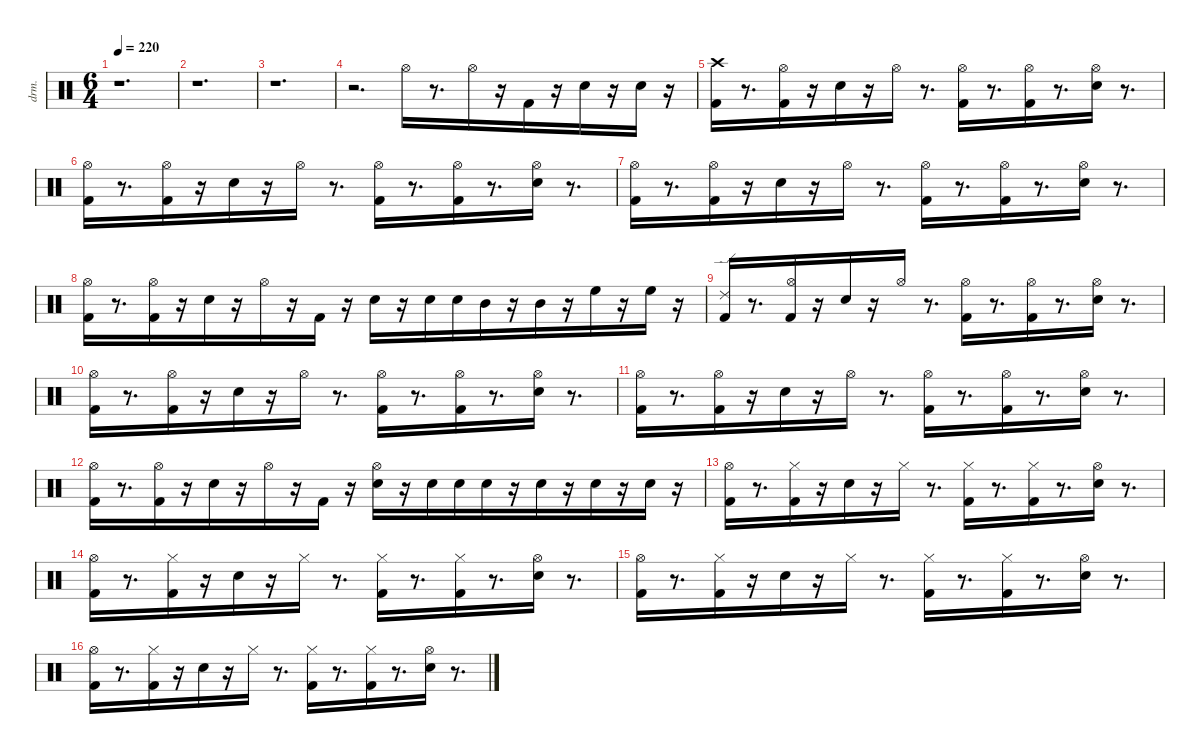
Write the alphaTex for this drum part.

\defaultSystemsLayout 4
\hideDynamics
\bracketExtendMode nobrackets
\otherSystemsTrackNameOrientation horizontal
\track ("EZdrummer 3" "drm.") {instrument percussion}
\staff {score}
\articulation defaults
\ts (6 4)
\beaming (8 6 6)
\tempo 220
\clef neutral
\ks c
r.1{d dy fff beam Down} |
r.1{d beam Down} |
r.1{d beam Down} |
r.2{d beam Down} "Hi-Hat (open)"{acc #}.16{beam Down} r.8{d beam Down} "Hi-Hat (open)"{acc #}.16{dy f beam Down} r.16{beam Down} "Kick (hit) 2".16{dy mf beam Up} r.16{beam Up} "Snare (hit) 2".16{beam Down} r.16{beam Down} "Snare (hit) 2".16{dy p beam Down} r.16{beam Down} |
("Kick (hit) 2" "Crash high (hit)"{acc #}).16{dy fff beam Down} r.8{d beam Down} ("Kick (hit) 2" "Hi-Hat (open)"{acc #}).16{dy f beam Down} r.16{beam Down} "Snare (hit) 2".16{dy ff beam Down} r.16{beam Down} "Hi-Hat (open)"{acc #}.16{dy mf beam Down} r.8{d beam Down} ("Kick (hit) 2" "Hi-Hat (open)"{acc #}).16{dy ff beam Down} r.8{d beam Down} ("Kick (hit) 2" "Hi-Hat (open)"{acc #}).16{dy f beam Down} r.8{d beam Down} ("Snare (hit) 2" "Hi-Hat (open)"{acc #}).16{dy ff beam Down} r.8{d beam Down} |
("Kick (hit) 2" "Hi-Hat (open)"{acc #}).16{dy fff beam Down} r.8{d beam Down} ("Kick (hit) 2" "Hi-Hat (open)"{acc #}).16{dy f beam Down} r.16{beam Down} "Snare (hit) 2".16{dy ff beam Down} r.16{beam Down} "Hi-Hat (open)"{acc #}.16{dy mf beam Down} r.8{d beam Down} ("Kick (hit) 2" "Hi-Hat (open)"{acc #}).16{dy ff beam Down} r.8{d beam Down} ("Kick (hit) 2" "Hi-Hat (open)"{acc #}).16{dy f beam Down} r.8{d beam Down} ("Snare (hit) 2" "Hi-Hat (open)"{acc #}).16{dy ff beam Down} r.8{d beam Down} |
("Kick (hit) 2" "Hi-Hat (open)"{acc #}).16{dy fff beam Down} r.8{d beam Down} ("Kick (hit) 2" "Hi-Hat (open)"{acc #}).16{dy f beam Down} r.16{beam Down} "Snare (hit) 2".16{dy ff beam Down} r.16{beam Down} "Hi-Hat (open)"{acc #}.16{dy mf beam Down} r.8{d beam Down} ("Kick (hit) 2" "Hi-Hat (open)"{acc #}).16{dy ff beam Down} r.8{d beam Down} ("Kick (hit) 2" "Hi-Hat (open)"{acc #}).16{dy f beam Down} r.8{d beam Down} ("Snare (hit) 2" "Hi-Hat (open)"{acc #}).16{dy ff beam Down} r.8{d beam Down} |
("Kick (hit) 2" "Hi-Hat (open)"{acc #}).16{dy fff beam Down} r.8{d beam Down} ("Kick (hit) 2" "Hi-Hat (open)"{acc #}).16{dy f beam Down} r.16{beam Down} "Snare (hit) 2".16{dy ff beam Down} r.16{beam Down} "Hi-Hat (open)"{acc #}.16{dy f beam Down} r.16{beam Down} "Kick (hit) 2".16{dy ff beam Up} r.16{beam Up} "Snare (hit) 2".16{beam Down} r.16{beam Down} "Snare (hit) 2".16{dy f beam Down} "Snare (hit) 2".16{dy p beam Down} "Mid Tom (hit)".16{dy ff beam Down} r.16{beam Down} "Mid Tom (hit)".16{dy mf beam Down} r.16{beam Down} "High Floor Tom (hit)".16{dy ff beam Down} r.16{beam Down} "High Floor Tom (hit)".16{dy f beam Down} r.16{beam Down} |
("Kick (hit) 2" "Ride (edge) 2").16{dy fff beam Up} r.8{d beam Up} ("Kick (hit) 2" "Hi-Hat (open)"{acc #}).16{dy f beam Down} r.16{beam Down} "Snare (hit) 2".16{dy ff beam Down} r.16{beam Down} "Hi-Hat (open)"{acc #}.16{dy mf beam Down} r.8{d beam Down} ("Kick (hit) 2" "Hi-Hat (open)"{acc #}).16{dy ff beam Down} r.8{d beam Down} ("Kick (hit) 2" "Hi-Hat (open)"{acc #}).16{dy f beam Down} r.8{d beam Down} ("Snare (hit) 2" "Hi-Hat (open)"{acc #}).16{dy ff beam Down} r.8{d beam Down} |
("Kick (hit) 2" "Hi-Hat (open)"{acc #}).16{dy fff beam Down} r.8{d beam Down} ("Kick (hit) 2" "Hi-Hat (open)"{acc #}).16{dy f beam Down} r.16{beam Down} "Snare (hit) 2".16{dy ff beam Down} r.16{beam Down} "Hi-Hat (open)"{acc #}.16{dy mf beam Down} r.8{d beam Down} ("Kick (hit) 2" "Hi-Hat (open)"{acc #}).16{dy ff beam Down} r.8{d beam Down} ("Kick (hit) 2" "Hi-Hat (open)"{acc #}).16{dy f beam Down} r.8{d beam Down} ("Snare (hit) 2" "Hi-Hat (open)"{acc #}).16{dy ff beam Down} r.8{d beam Down} |
("Kick (hit) 2" "Hi-Hat (open)"{acc #}).16{dy fff beam Down} r.8{d beam Down} ("Kick (hit) 2" "Hi-Hat (open)"{acc #}).16{dy f beam Down} r.16{beam Down} "Snare (hit) 2".16{dy ff beam Down} r.16{beam Down} "Hi-Hat (open)"{acc #}.16{dy f beam Down} r.8{d beam Down} ("Kick (hit) 2" "Hi-Hat (open)"{acc #}).16{dy ff beam Down} r.8{d beam Down} ("Kick (hit) 2" "Hi-Hat (open)"{acc #}).16{dy f beam Down} r.8{d beam Down} ("Snare (hit) 2" "Hi-Hat (open)"{acc #}).16{dy ff beam Down} r.8{d beam Down} |
("Kick (hit) 2" "Hi-Hat (open)"{acc #}).16{dy fff beam Down} r.8{d beam Down} ("Kick (hit) 2" "Hi-Hat (open)"{acc #}).16{dy f beam Down} r.16{beam Down} "Snare (hit) 2".16{dy ff beam Down} r.16{beam Down} "Hi-Hat (open)"{acc #}.16{dy f beam Down} r.16{beam Down} "Kick (hit) 2".16{dy ff beam Up} r.16{beam Up} ("Snare (hit) 2" "Hi-Hat (open)"{acc #}).16{beam Down} r.16{beam Down} "Snare (hit) 2".16{dy p beam Down} "Snare (hit) 2".16{dy pp beam Down} "Snare (hit) 2".16{dy mf beam Down} r.16{beam Down} "Snare (hit) 2".16{dy mp beam Down} r.16{beam Down} "Snare (hit) 2".16{dy mf beam Down} r.16{beam Down} "Snare (hit) 2".16{dy mp beam Down} r.16{beam Down} |
("Kick (hit) 2" "Hi-Hat (open)"{acc #}).16{dy fff beam Down} r.8{d beam Down} ("Kick (hit) 2" "Hi-Hat (closed)"{acc #}).16{dy f beam Down} r.16{beam Down} "Snare (hit) 2".16{dy ff beam Down} r.16{beam Down} "Hi-Hat (closed)"{acc #}.16{beam Down} r.8{d beam Down} ("Kick (hit) 2" "Hi-Hat (closed)"{acc #}).16{beam Down} r.8{d beam Down} ("Kick (hit) 2" "Hi-Hat (closed)"{acc #}).16{dy f beam Down} r.8{d beam Down} ("Snare (hit) 2" "Hi-Hat (open)"{acc #}).16{dy ff beam Down} r.8{d beam Down} |
("Kick (hit) 2" "Hi-Hat (open)"{acc #}).16{dy fff beam Down} r.8{d beam Down} ("Kick (hit) 2" "Hi-Hat (closed)"{acc #}).16{dy f beam Down} r.16{beam Down} "Snare (hit) 2".16{dy ff beam Down} r.16{beam Down} "Hi-Hat (closed)"{acc #}.16{beam Down} r.8{d beam Down} ("Kick (hit) 2" "Hi-Hat (closed)"{acc #}).16{beam Down} r.8{d beam Down} ("Kick (hit) 2" "Hi-Hat (closed)"{acc #}).16{dy f beam Down} r.8{d beam Down} ("Snare (hit) 2" "Hi-Hat (open)"{acc #}).16{dy ff beam Down} r.8{d beam Down} |
("Kick (hit) 2" "Hi-Hat (open)"{acc #}).16{dy fff beam Down} r.8{d beam Down} ("Kick (hit) 2" "Hi-Hat (closed)"{acc #}).16{dy f beam Down} r.16{beam Down} "Snare (hit) 2".16{dy ff beam Down} r.16{beam Down} "Hi-Hat (closed)"{acc #}.16{beam Down} r.8{d beam Down} ("Kick (hit) 2" "Hi-Hat (closed)"{acc #}).16{beam Down} r.8{d beam Down} ("Kick (hit) 2" "Hi-Hat (closed)"{acc #}).16{dy f beam Down} r.8{d beam Down} ("Snare (hit) 2" "Hi-Hat (open)"{acc #}).16{dy ff beam Down} r.8{d beam Down} |
("Kick (hit) 2" "Hi-Hat (open)"{acc #}).16{dy fff beam Down} r.8{d beam Down} ("Kick (hit) 2" "Hi-Hat (closed)"{acc #}).16{dy f beam Down} r.16{beam Down} "Snare (hit) 2".16{dy ff beam Down} r.16{beam Down} "Hi-Hat (closed)"{acc #}.16{beam Down} r.8{d beam Down} ("Kick (hit) 2" "Hi-Hat (closed)"{acc #}).16{beam Down} r.8{d beam Down} ("Kick (hit) 2" "Hi-Hat (closed)"{acc #}).16{dy f beam Down} r.8{d beam Down} ("Snare (hit) 2" "Hi-Hat (open)"{acc #}).16{dy ff beam Down} r.8{d beam Down}
